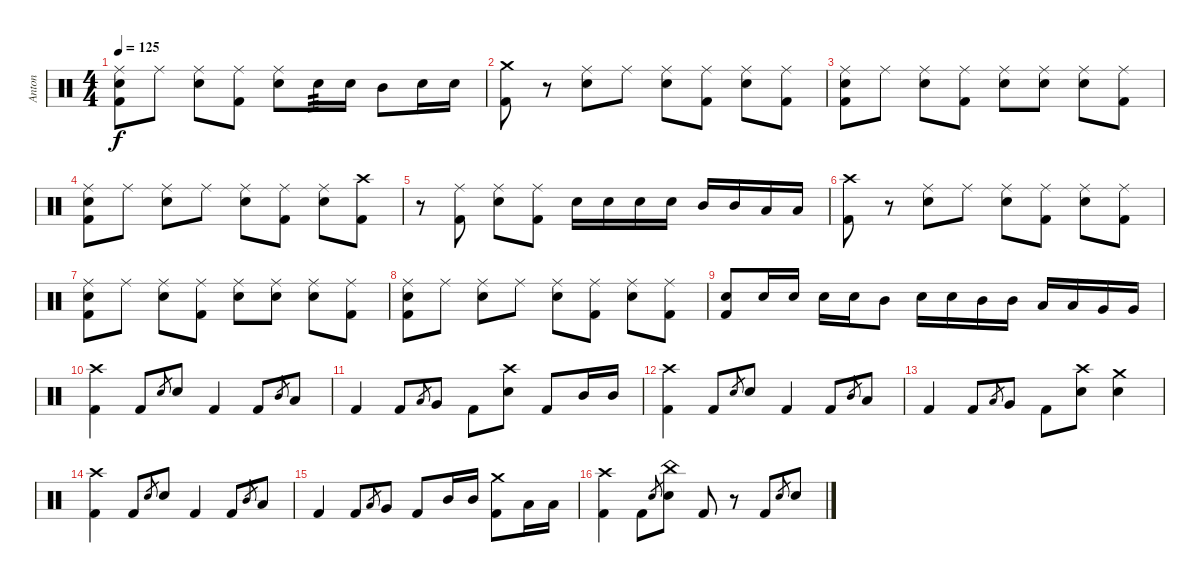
\track ("Anton" "Anton") {instrument percussion}
\staff {score}
\articulation defaults
\ts (4 4)
\tempo 125
\clef neutral
\ks c
("Kick (hit) 2" "Electric Snare (hit)" "Ride (middle)").8{dy f} "Ride (middle)".8 ("Electric Snare (hit)" "Ride (middle)").8 ("Kick (hit) 2" "Ride (middle)").8 ("Electric Snare (hit)" "Ride (middle)").8 "Electric Snare (hit)".16{tp 3} "Electric Snare (hit)".16 "Mid Tom (hit)".8 "Electric Snare (hit)".16 "Electric Snare (hit)".16 |
("Kick (hit) 2" "Crash medium (hit)").8 r.8 ("Electric Snare (hit)" "Ride (middle)").8 "Ride (middle)".8 ("Electric Snare (hit)" "Ride (middle)").8 ("Kick (hit) 2" "Ride (middle)").8 ("Electric Snare (hit)" "Ride (middle)").8 ("Kick (hit) 2" "Ride (middle)").8 |
("Kick (hit) 2" "Electric Snare (hit)" "Ride (middle)").8 "Ride (middle)".8 ("Electric Snare (hit)" "Ride (middle)").8 ("Kick (hit) 2" "Ride (middle)").8 ("Electric Snare (hit)" "Ride (middle)").8 ("Electric Snare (hit)" "Ride (middle)").8 ("Electric Snare (hit)" "Ride (middle)").8 ("Kick (hit) 2" "Ride (middle)").8 |
("Kick (hit) 2" "Electric Snare (hit)" "Ride (middle)").8 "Ride (middle)".8 ("Electric Snare (hit)" "Ride (middle)").8 "Ride (middle)".8 ("Electric Snare (hit)" "Ride (middle)").8 ("Kick (hit) 2" "Ride (middle)").8 ("Electric Snare (hit)" "Ride (middle)").8 ("Kick (hit) 2" "Crash high (hit)").8 |
r.8 ("Kick (hit) 2" "Ride (middle)").8 ("Electric Snare (hit)" "Ride (middle)").8 ("Kick (hit) 2" "Ride (middle)").8 "Electric Snare (hit)".16 "Electric Snare (hit)".16 "Electric Snare (hit)".16 "Electric Snare (hit)".16 "Mid Tom (hit)".16 "Mid Tom (hit)".16 "Low Tom (hit)".16 "Low Tom (hit)".16 |
("Kick (hit) 2" "Crash high (hit)").8 r.8 ("Electric Snare (hit)" "Ride (middle)").8 "Ride (middle)".8 ("Electric Snare (hit)" "Ride (middle)").8 ("Kick (hit) 2" "Ride (middle)").8 ("Electric Snare (hit)" "Ride (middle)").8 ("Kick (hit) 2" "Ride (middle)").8 |
("Kick (hit) 2" "Electric Snare (hit)" "Ride (middle)").8 "Ride (middle)".8 ("Electric Snare (hit)" "Ride (middle)").8 ("Kick (hit) 2" "Ride (middle)").8 ("Electric Snare (hit)" "Ride (middle)").8 ("Electric Snare (hit)" "Ride (middle)").8 ("Electric Snare (hit)" "Ride (middle)").8 ("Kick (hit) 2" "Ride (middle)").8 |
("Kick (hit) 2" "Electric Snare (hit)" "Ride (middle)").8 "Ride (middle)".8 ("Electric Snare (hit)" "Ride (middle)").8 "Ride (middle)".8 ("Electric Snare (hit)" "Ride (middle)").8 ("Kick (hit) 2" "Ride (middle)").8 ("Electric Snare (hit)" "Ride (middle)").8 ("Kick (hit) 2" "Ride (middle)").8 |
("Kick (hit) 2" "Electric Snare (hit)").8 "Electric Snare (hit)".16 "Electric Snare (hit)".16 "Electric Snare (hit)".16 "Electric Snare (hit)".16 "Mid Tom (hit)".8 "Electric Snare (hit)".16 "Electric Snare (hit)".16 "Mid Tom (hit)".16 "Mid Tom (hit)".16 "Low Tom (hit)".16 "Low Tom (hit)".16 "Very Low Tom (hit)".16 "Very Low Tom (hit)".16 |
("Kick (hit) 2" "Crash high (hit)").4 "Kick (hit) 2".8 "Electric Snare (hit)".8{gr} "Electric Snare (hit)".8 "Kick (hit) 2".4 "Kick (hit) 2".8 "Mid Tom (hit)".8{gr} "Low Tom (hit)".8 |
"Kick (hit) 2".4 "Kick (hit) 2".8 "Low Tom (hit)".8{gr} "Very Low Tom (hit)".8 "Kick (hit) 2".8 ("Electric Snare (hit)" "Crash high (hit)").8 "Kick (hit) 2".8 "Mid Tom (hit)".16 "Mid Tom (hit)".16 |
("Kick (hit) 2" "Crash high (hit)").4 "Kick (hit) 2".8 "Electric Snare (hit)".8{gr} "Electric Snare (hit)".8 "Kick (hit) 2".4 "Kick (hit) 2".8 "Mid Tom (hit)".8{gr} "Low Tom (hit)".8 |
"Kick (hit) 2".4 "Kick (hit) 2".8 "Low Tom (hit)".8{gr} "Very Low Tom (hit)".8 "Kick (hit) 2".8 ("Electric Snare (hit)" "Crash high (hit)").8 ("Electric Snare (hit)" "Crash medium (hit)").4 |
("Kick (hit) 2" "Crash high (hit)").4 "Kick (hit) 2".8 "Electric Snare (hit)".8{gr} "Electric Snare (hit)".8 "Kick (hit) 2".4 "Kick (hit) 2".8 "Mid Tom (hit)".8{gr} "Low Tom (hit)".8 |
"Kick (hit) 2".4 "Kick (hit) 2".8 "Low Tom (hit)".8{gr} "Very Low Tom (hit)".8 "Kick (hit) 2".8 "Mid Tom (hit)".16 "Mid Tom (hit)".16 ("Kick (hit) 2" "Crash medium (hit)").8 "Low Tom (hit)".16 "Low Tom (hit)".16 |
("Kick (hit) 2" "Crash high (hit)").4 "Kick (hit) 2".8 "Electric Snare (hit)".8{gr} ("Electric Snare (hit)" "China (hit)").8 "Kick (hit) 2".8 r.8 "Kick (hit) 2".8 "Electric Snare (hit)".8{gr} "Electric Snare (hit)".8
